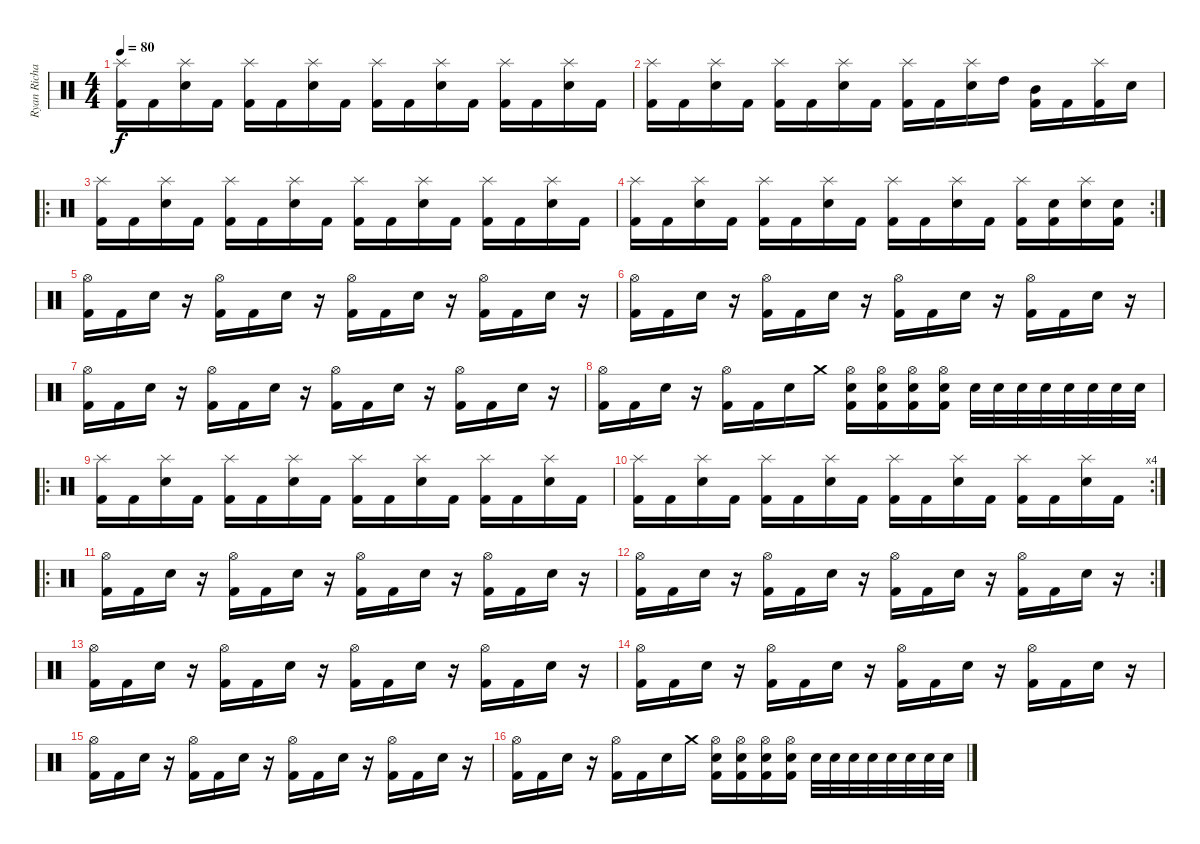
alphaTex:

\track ("Ryan Richards" "Ryan Richa") {instrument percussion}
\staff {score}
\articulation defaults
\ts (4 4)
\tempo 80
\clef neutral
\ks c
("Splash (hit)" "Kick (hit) 2").16{dy f} "Kick (hit) 2".16 ("Splash (hit)" "Snare (hit) 2").16 "Kick (hit) 2".16 ("Splash (hit)" "Kick (hit) 2").16 "Kick (hit) 2".16 ("Splash (hit)" "Snare (hit) 2").16 "Kick (hit) 2".16 ("Splash (hit)" "Kick (hit) 2").16 "Kick (hit) 2".16 ("Splash (hit)" "Snare (hit) 2").16 "Kick (hit) 2".16 ("Splash (hit)" "Kick (hit) 2").16 "Kick (hit) 2".16 ("Splash (hit)" "Snare (hit) 2").16 "Kick (hit) 2".16 |
("Splash (hit)" "Kick (hit) 2").16 "Kick (hit) 2".16 ("Splash (hit)" "Snare (hit) 2").16 "Kick (hit) 2".16 ("Splash (hit)" "Kick (hit) 2").16 "Kick (hit) 2".16 ("Splash (hit)" "Snare (hit) 2").16 "Kick (hit) 2".16 ("Splash (hit)" "Kick (hit) 2").16 "Kick (hit) 2".16 ("Splash (hit)" "Snare (hit) 2").16 "High Tom (hit)".16 ("Mid Tom (hit)" "Kick (hit) 2").16 "Kick (hit) 2".16 ("Splash (hit)" "Kick (hit) 2").16 "Snare (hit) 2".16 |
\ro
("Splash (hit)" "Kick (hit) 2").16 "Kick (hit) 2".16 ("Splash (hit)" "Snare (hit) 2").16 "Kick (hit) 2".16 ("Splash (hit)" "Kick (hit) 2").16 "Kick (hit) 2".16 ("Splash (hit)" "Snare (hit) 2").16 "Kick (hit) 2".16 ("Splash (hit)" "Kick (hit) 2").16 "Kick (hit) 2".16 ("Splash (hit)" "Snare (hit) 2").16 "Kick (hit) 2".16 ("Splash (hit)" "Kick (hit) 2").16 "Kick (hit) 2".16 ("Splash (hit)" "Snare (hit) 2").16 "Kick (hit) 2".16 |
\rc 2
("Splash (hit)" "Kick (hit) 2").16 "Kick (hit) 2".16 ("Splash (hit)" "Snare (hit) 2").16 "Kick (hit) 2".16 ("Splash (hit)" "Kick (hit) 2").16 "Kick (hit) 2".16 ("Splash (hit)" "Snare (hit) 2").16 "Kick (hit) 2".16 ("Splash (hit)" "Kick (hit) 2").16 "Kick (hit) 2".16 ("Splash (hit)" "Snare (hit) 2").16 "Kick (hit) 2".16 ("Splash (hit)" "Kick (hit) 2").16 ("Snare (hit) 2" "Kick (hit) 2").16 ("Splash (hit)" "Snare (hit) 2").16 ("Snare (hit) 2" "Kick (hit) 2").16 |
("Hi-Hat (open)" "Kick (hit) 2").16 "Kick (hit) 2".16 "Snare (hit) 2".16 r.16 ("Hi-Hat (open)" "Kick (hit) 2").16 "Kick (hit) 2".16 "Snare (hit) 2".16 r.16 ("Hi-Hat (open)" "Kick (hit) 2").16 "Kick (hit) 2".16 "Snare (hit) 2".16 r.16 ("Hi-Hat (open)" "Kick (hit) 2").16 "Kick (hit) 2".16 "Snare (hit) 2".16 r.16 |
("Hi-Hat (open)" "Kick (hit) 2").16 "Kick (hit) 2".16 "Snare (hit) 2".16 r.16 ("Hi-Hat (open)" "Kick (hit) 2").16 "Kick (hit) 2".16 "Snare (hit) 2".16 r.16 ("Hi-Hat (open)" "Kick (hit) 2").16 "Kick (hit) 2".16 "Snare (hit) 2".16 r.16 ("Hi-Hat (open)" "Kick (hit) 2").16 "Kick (hit) 2".16 "Snare (hit) 2".16 r.16 |
("Hi-Hat (open)" "Kick (hit) 2").16 "Kick (hit) 2".16 "Snare (hit) 2".16 r.16 ("Hi-Hat (open)" "Kick (hit) 2").16 "Kick (hit) 2".16 "Snare (hit) 2".16 r.16 ("Hi-Hat (open)" "Kick (hit) 2").16 "Kick (hit) 2".16 "Snare (hit) 2".16 r.16 ("Hi-Hat (open)" "Kick (hit) 2").16 "Kick (hit) 2".16 "Snare (hit) 2".16 r.16 |
("Hi-Hat (open)" "Kick (hit) 2").16 "Kick (hit) 2".16 "Snare (hit) 2".16 r.16 ("Hi-Hat (open)" "Kick (hit) 2").16 "Kick (hit) 2".16 "Snare (hit) 2".16 "Crash medium (hit)".16 ("Hi-Hat (open)" "Snare (hit) 2" "Kick (hit) 2").16 ("Hi-Hat (open)" "Snare (hit) 2" "Kick (hit) 2").16 ("Hi-Hat (open)" "Snare (hit) 2" "Kick (hit) 2").16 ("Hi-Hat (open)" "Snare (hit) 2" "Kick (hit) 2").16 "Snare (hit) 2".32 "Snare (hit) 2".32 "Snare (hit) 2".32 "Snare (hit) 2".32 "Snare (hit) 2".32 "Snare (hit) 2".32 "Snare (hit) 2".32 "Snare (hit) 2".32 |
\ro
("Splash (hit)" "Kick (hit) 2").16 "Kick (hit) 2".16 ("Splash (hit)" "Snare (hit) 2").16 "Kick (hit) 2".16 ("Splash (hit)" "Kick (hit) 2").16 "Kick (hit) 2".16 ("Splash (hit)" "Snare (hit) 2").16 "Kick (hit) 2".16 ("Splash (hit)" "Kick (hit) 2").16 "Kick (hit) 2".16 ("Splash (hit)" "Snare (hit) 2").16 "Kick (hit) 2".16 ("Splash (hit)" "Kick (hit) 2").16 "Kick (hit) 2".16 ("Splash (hit)" "Snare (hit) 2").16 "Kick (hit) 2".16 |
\rc 4
("Splash (hit)" "Kick (hit) 2").16 "Kick (hit) 2".16 ("Splash (hit)" "Snare (hit) 2").16 "Kick (hit) 2".16 ("Splash (hit)" "Kick (hit) 2").16 "Kick (hit) 2".16 ("Splash (hit)" "Snare (hit) 2").16 "Kick (hit) 2".16 ("Splash (hit)" "Kick (hit) 2").16 "Kick (hit) 2".16 ("Splash (hit)" "Snare (hit) 2").16 "Kick (hit) 2".16 ("Splash (hit)" "Kick (hit) 2").16 "Kick (hit) 2".16 ("Splash (hit)" "Snare (hit) 2").16 "Kick (hit) 2".16 |
\ro
("Hi-Hat (open)" "Kick (hit) 2").16 "Kick (hit) 2".16 "Snare (hit) 2".16 r.16 ("Hi-Hat (open)" "Kick (hit) 2").16 "Kick (hit) 2".16 "Snare (hit) 2".16 r.16 ("Hi-Hat (open)" "Kick (hit) 2").16 "Kick (hit) 2".16 "Snare (hit) 2".16 r.16 ("Hi-Hat (open)" "Kick (hit) 2").16 "Kick (hit) 2".16 "Snare (hit) 2".16 r.16 |
\rc 2
("Hi-Hat (open)" "Kick (hit) 2").16 "Kick (hit) 2".16 "Snare (hit) 2".16 r.16 ("Hi-Hat (open)" "Kick (hit) 2").16 "Kick (hit) 2".16 "Snare (hit) 2".16 r.16 ("Hi-Hat (open)" "Kick (hit) 2").16 "Kick (hit) 2".16 "Snare (hit) 2".16 r.16 ("Hi-Hat (open)" "Kick (hit) 2").16 "Kick (hit) 2".16 "Snare (hit) 2".16 r.16 |
("Hi-Hat (open)" "Kick (hit) 2").16 "Kick (hit) 2".16 "Snare (hit) 2".16 r.16 ("Hi-Hat (open)" "Kick (hit) 2").16 "Kick (hit) 2".16 "Snare (hit) 2".16 r.16 ("Hi-Hat (open)" "Kick (hit) 2").16 "Kick (hit) 2".16 "Snare (hit) 2".16 r.16 ("Hi-Hat (open)" "Kick (hit) 2").16 "Kick (hit) 2".16 "Snare (hit) 2".16 r.16 |
("Hi-Hat (open)" "Kick (hit) 2").16 "Kick (hit) 2".16 "Snare (hit) 2".16 r.16 ("Hi-Hat (open)" "Kick (hit) 2").16 "Kick (hit) 2".16 "Snare (hit) 2".16 r.16 ("Hi-Hat (open)" "Kick (hit) 2").16 "Kick (hit) 2".16 "Snare (hit) 2".16 r.16 ("Hi-Hat (open)" "Kick (hit) 2").16 "Kick (hit) 2".16 "Snare (hit) 2".16 r.16 |
("Hi-Hat (open)" "Kick (hit) 2").16 "Kick (hit) 2".16 "Snare (hit) 2".16 r.16 ("Hi-Hat (open)" "Kick (hit) 2").16 "Kick (hit) 2".16 "Snare (hit) 2".16 r.16 ("Hi-Hat (open)" "Kick (hit) 2").16 "Kick (hit) 2".16 "Snare (hit) 2".16 r.16 ("Hi-Hat (open)" "Kick (hit) 2").16 "Kick (hit) 2".16 "Snare (hit) 2".16 r.16 |
("Hi-Hat (open)" "Kick (hit) 2").16 "Kick (hit) 2".16 "Snare (hit) 2".16 r.16 ("Hi-Hat (open)" "Kick (hit) 2").16 "Kick (hit) 2".16 "Snare (hit) 2".16 "Crash medium (hit)".16 ("Hi-Hat (open)" "Snare (hit) 2" "Kick (hit) 2").16 ("Hi-Hat (open)" "Snare (hit) 2" "Kick (hit) 2").16 ("Hi-Hat (open)" "Snare (hit) 2" "Kick (hit) 2").16 ("Hi-Hat (open)" "Snare (hit) 2" "Kick (hit) 2").16 "Snare (hit) 2".32 "Snare (hit) 2".32 "Snare (hit) 2".32 "Snare (hit) 2".32 "Snare (hit) 2".32 "Snare (hit) 2".32 "Snare (hit) 2".32 "Snare (hit) 2".32
